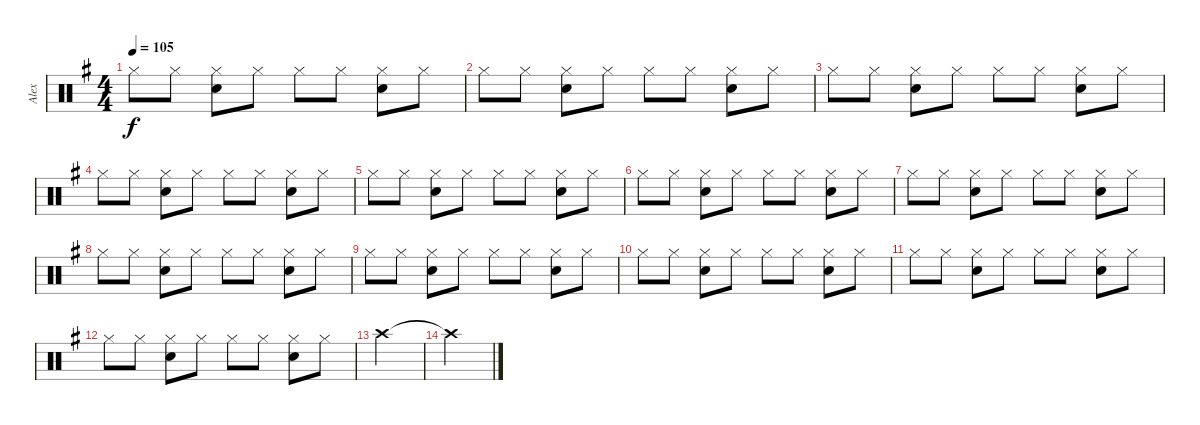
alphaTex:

\track ("Alex" "Alex") {instrument percussion}
\staff {score}
\articulation defaults
\ts (4 4)
\tempo 105
\clef neutral
\ks g "Hi-Hat (closed)".8{dy f} "Hi-Hat (closed)".8
("Hi-Hat (closed)" "Snare (hit) 2").8 "Hi-Hat (closed)".8 "Hi-Hat (closed)".8 "Hi-Hat (closed)".8 ("Hi-Hat (closed)" "Snare (hit) 2").8 "Hi-Hat (closed)".8 |
"Hi-Hat (closed)".8 "Hi-Hat (closed)".8 ("Hi-Hat (closed)" "Snare (hit) 2").8 "Hi-Hat (closed)".8 "Hi-Hat (closed)".8 "Hi-Hat (closed)".8 ("Hi-Hat (closed)" "Snare (hit) 2").8 "Hi-Hat (closed)".8 |
"Hi-Hat (closed)".8 "Hi-Hat (closed)".8 ("Hi-Hat (closed)" "Snare (hit) 2").8 "Hi-Hat (closed)".8 "Hi-Hat (closed)".8 "Hi-Hat (closed)".8 ("Hi-Hat (closed)" "Snare (hit) 2").8 "Hi-Hat (closed)".8 |
"Hi-Hat (closed)".8 "Hi-Hat (closed)".8 ("Hi-Hat (closed)" "Snare (hit) 2").8 "Hi-Hat (closed)".8 "Hi-Hat (closed)".8 "Hi-Hat (closed)".8 ("Hi-Hat (closed)" "Snare (hit) 2").8 "Hi-Hat (closed)".8 |
"Hi-Hat (closed)".8 "Hi-Hat (closed)".8 ("Hi-Hat (closed)" "Snare (hit) 2").8 "Hi-Hat (closed)".8 "Hi-Hat (closed)".8 "Hi-Hat (closed)".8 ("Hi-Hat (closed)" "Snare (hit) 2").8 "Hi-Hat (closed)".8 |
"Hi-Hat (closed)".8 "Hi-Hat (closed)".8 ("Hi-Hat (closed)" "Snare (hit) 2").8 "Hi-Hat (closed)".8 "Hi-Hat (closed)".8 "Hi-Hat (closed)".8 ("Hi-Hat (closed)" "Snare (hit) 2").8 "Hi-Hat (closed)".8 |
"Hi-Hat (closed)".8 "Hi-Hat (closed)".8 ("Hi-Hat (closed)" "Snare (hit) 2").8 "Hi-Hat (closed)".8 "Hi-Hat (closed)".8 "Hi-Hat (closed)".8 ("Hi-Hat (closed)" "Snare (hit) 2").8 "Hi-Hat (closed)".8 |
"Hi-Hat (closed)".8 "Hi-Hat (closed)".8 ("Hi-Hat (closed)" "Snare (hit) 2").8 "Hi-Hat (closed)".8 "Hi-Hat (closed)".8 "Hi-Hat (closed)".8 ("Hi-Hat (closed)" "Snare (hit) 2").8 "Hi-Hat (closed)".8 |
"Hi-Hat (closed)".8 "Hi-Hat (closed)".8 ("Hi-Hat (closed)" "Snare (hit) 2").8 "Hi-Hat (closed)".8 "Hi-Hat (closed)".8 "Hi-Hat (closed)".8 ("Hi-Hat (closed)" "Snare (hit) 2").8 "Hi-Hat (closed)".8 |
"Hi-Hat (closed)".8 "Hi-Hat (closed)".8 ("Hi-Hat (closed)" "Snare (hit) 2").8 "Hi-Hat (closed)".8 "Hi-Hat (closed)".8 "Hi-Hat (closed)".8 ("Hi-Hat (closed)" "Snare (hit) 2").8 "Hi-Hat (closed)".8 |
"Hi-Hat (closed)".8 "Hi-Hat (closed)".8 ("Hi-Hat (closed)" "Snare (hit) 2").8 "Hi-Hat (closed)".8 "Hi-Hat (closed)".8 "Hi-Hat (closed)".8 ("Hi-Hat (closed)" "Snare (hit) 2").8 "Hi-Hat (closed)".8 |
"Hi-Hat (closed)".8 "Hi-Hat (closed)".8 ("Hi-Hat (closed)" "Snare (hit) 2").8 "Hi-Hat (closed)".8 "Hi-Hat (closed)".8 "Hi-Hat (closed)".8 ("Hi-Hat (closed)" "Snare (hit) 2").8 "Hi-Hat (closed)".8 |
"Crash high (hit)".2 |
"Crash high (hit)"{t}.2
